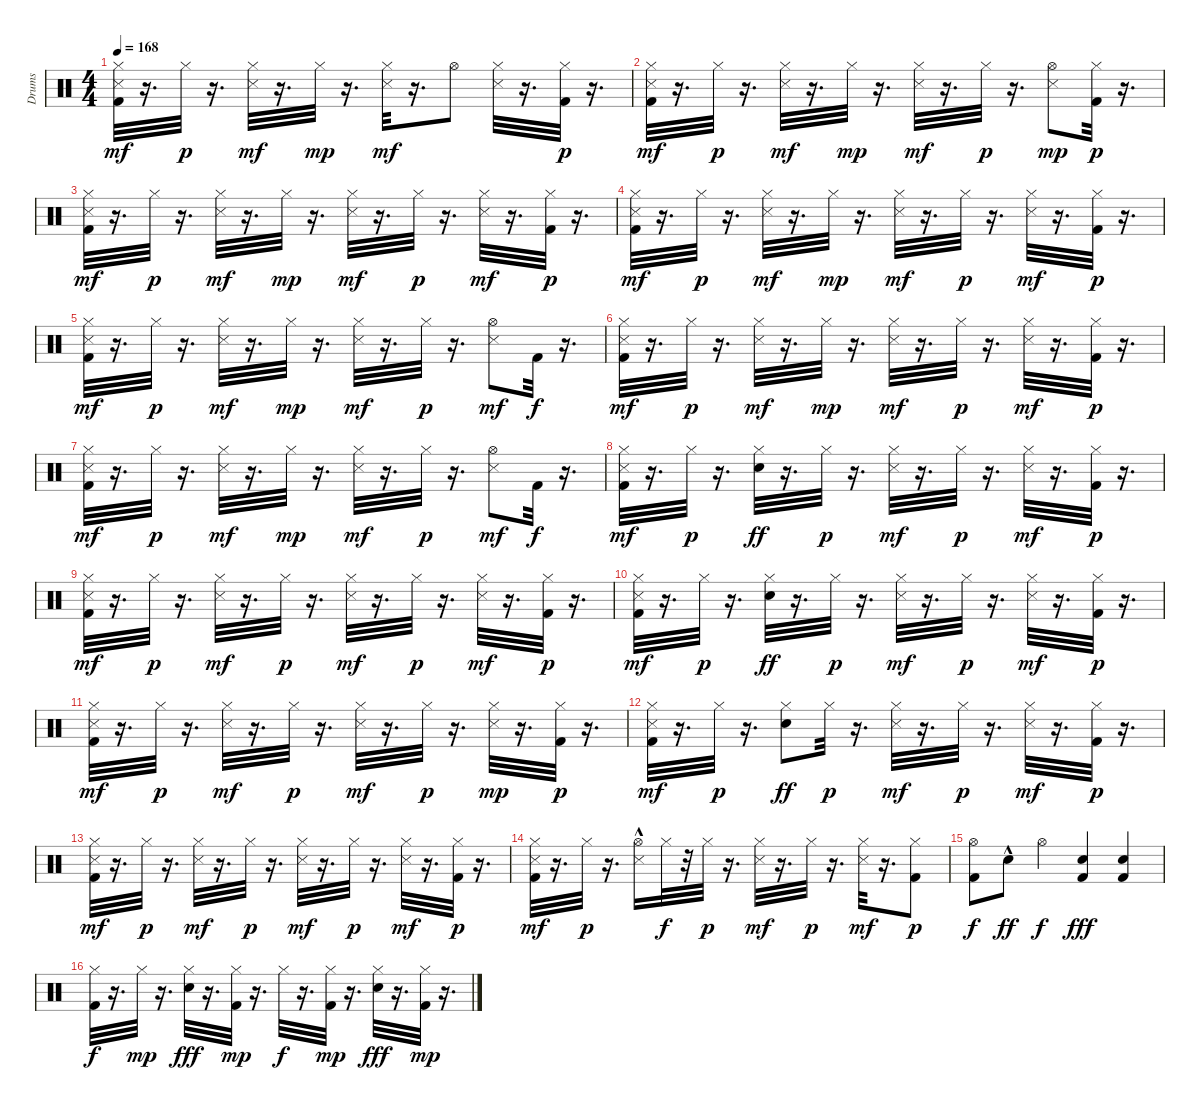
\track ("Drums" "Drums") {instrument percussion}
\staff {score}
\articulation defaults
\ts (4 4)
\tempo 168
\clef neutral
\ks c
("Hi-Hat (closed)" "Kick (hit) 2" "Snare (side stick) 3").32{dy mf} r.16{d} "Hi-Hat (closed)".32{dy p} r.16{d} ("Hi-Hat (closed)" "Snare (side stick) 3").32{dy mf} r.16{d} "Hi-Hat (closed)".32{dy mp} r.16{d} ("Snare (side stick) 3" "Hi-Hat (closed)").32{dy mf} r.16{d} "Hi-Hat (open)".8 ("Hi-Hat (closed)" "Snare (side stick) 3").32 r.16{d} ("Hi-Hat (closed)" "Kick (hit) 2").32{dy p} r.16{d} |
("Hi-Hat (closed)" "Kick (hit) 2" "Snare (side stick) 3").32{dy mf} r.16{d} "Hi-Hat (closed)".32{dy p} r.16{d} ("Hi-Hat (closed)" "Snare (side stick) 3").32{dy mf} r.16{d} "Hi-Hat (closed)".32{dy mp} r.16{d} ("Hi-Hat (closed)" "Snare (side stick) 3").32{dy mf} r.16{d} "Hi-Hat (closed)".32{dy p} r.16{d} ("Snare (side stick) 3" "Hi-Hat (open)").8{dy mp} ("Hi-Hat (closed)" "Kick (hit) 2").32{dy p} r.16{d} |
("Hi-Hat (closed)" "Kick (hit) 2" "Snare (side stick) 3").32{dy mf} r.16{d} "Hi-Hat (closed)".32{dy p} r.16{d} ("Hi-Hat (closed)" "Snare (side stick) 3").32{dy mf} r.16{d} "Hi-Hat (closed)".32{dy mp} r.16{d} ("Hi-Hat (closed)" "Snare (side stick) 3").32{dy mf} r.16{d} "Hi-Hat (closed)".32{dy p} r.16{d} ("Hi-Hat (closed)" "Snare (side stick) 3").32{dy mf} r.16{d} ("Hi-Hat (closed)" "Kick (hit) 2").32{dy p} r.16{d} |
("Hi-Hat (closed)" "Kick (hit) 2" "Snare (side stick) 3").32{dy mf} r.16{d} "Hi-Hat (closed)".32{dy p} r.16{d} ("Hi-Hat (closed)" "Snare (side stick) 3").32{dy mf} r.16{d} "Hi-Hat (closed)".32{dy mp} r.16{d} ("Hi-Hat (closed)" "Snare (side stick) 3").32{dy mf} r.16{d} "Hi-Hat (closed)".32{dy p} r.16{d} ("Hi-Hat (closed)" "Snare (side stick) 3").32{dy mf} r.16{d} ("Hi-Hat (closed)" "Kick (hit) 2").32{dy p} r.16{d} |
("Hi-Hat (closed)" "Kick (hit) 2" "Snare (side stick) 3").32{dy mf} r.16{d} "Hi-Hat (closed)".32{dy p} r.16{d} ("Hi-Hat (closed)" "Snare (side stick) 3").32{dy mf} r.16{d} "Hi-Hat (closed)".32{dy mp} r.16{d} ("Hi-Hat (closed)" "Snare (side stick) 3").32{dy mf} r.16{d} "Hi-Hat (closed)".32{dy p} r.16{d} ("Snare (side stick) 3" "Hi-Hat (open)").8{dy mf} "Kick (hit) 2".32{dy f} r.16{d} |
("Hi-Hat (closed)" "Kick (hit) 2" "Snare (side stick) 3").32{dy mf} r.16{d} "Hi-Hat (closed)".32{dy p} r.16{d} ("Hi-Hat (closed)" "Snare (side stick) 3").32{dy mf} r.16{d} "Hi-Hat (closed)".32{dy mp} r.16{d} ("Hi-Hat (closed)" "Snare (side stick) 3").32{dy mf} r.16{d} "Hi-Hat (closed)".32{dy p} r.16{d} ("Hi-Hat (closed)" "Snare (side stick) 3").32{dy mf} r.16{d} ("Hi-Hat (closed)" "Kick (hit) 2").32{dy p} r.16{d} |
("Hi-Hat (closed)" "Kick (hit) 2" "Snare (side stick) 3").32{dy mf} r.16{d} "Hi-Hat (closed)".32{dy p} r.16{d} ("Hi-Hat (closed)" "Snare (side stick) 3").32{dy mf} r.16{d} "Hi-Hat (closed)".32{dy mp} r.16{d} ("Hi-Hat (closed)" "Snare (side stick) 3").32{dy mf} r.16{d} "Hi-Hat (closed)".32{dy p} r.16{d} ("Snare (side stick) 3" "Hi-Hat (open)").8{dy mf} "Kick (hit) 2".32{dy f} r.16{d} |
("Hi-Hat (closed)" "Kick (hit) 2" "Snare (side stick) 3").32{dy mf} r.16{d} "Hi-Hat (closed)".32{dy p} r.16{d} ("Hi-Hat (closed)" "Electric Snare (hit)").32{dy ff} r.16{d} "Hi-Hat (closed)".32{dy p} r.16{d} ("Hi-Hat (closed)" "Snare (side stick) 3").32{dy mf} r.16{d} "Hi-Hat (closed)".32{dy p} r.16{d} ("Hi-Hat (closed)" "Snare (side stick) 3").32{dy mf} r.16{d} ("Hi-Hat (closed)" "Kick (hit) 2").32{dy p} r.16{d} |
("Hi-Hat (closed)" "Kick (hit) 2" "Snare (side stick) 3").32{dy mf} r.16{d} "Hi-Hat (closed)".32{dy p} r.16{d} ("Hi-Hat (closed)" "Snare (side stick) 3").32{dy mf} r.16{d} "Hi-Hat (closed)".32{dy p} r.16{d} ("Hi-Hat (closed)" "Snare (side stick) 3").32{dy mf} r.16{d} "Hi-Hat (closed)".32{dy p} r.16{d} ("Hi-Hat (closed)" "Snare (side stick) 3").32{dy mf} r.16{d} ("Hi-Hat (closed)" "Kick (hit) 2").32{dy p} r.16{d} |
("Hi-Hat (closed)" "Kick (hit) 2" "Snare (side stick) 3").32{dy mf} r.16{d} "Hi-Hat (closed)".32{dy p} r.16{d} ("Hi-Hat (closed)" "Electric Snare (hit)").32{dy ff} r.16{d} "Hi-Hat (closed)".32{dy p} r.16{d} ("Hi-Hat (closed)" "Snare (side stick) 3").32{dy mf} r.16{d} "Hi-Hat (closed)".32{dy p} r.16{d} ("Hi-Hat (closed)" "Snare (side stick) 3").32{dy mf} r.16{d} ("Hi-Hat (closed)" "Kick (hit) 2").32{dy p} r.16{d} |
("Hi-Hat (closed)" "Kick (hit) 2" "Snare (side stick) 3").32{dy mf} r.16{d} "Hi-Hat (closed)".32{dy p} r.16{d} ("Hi-Hat (closed)" "Snare (side stick) 3").32{dy mf} r.16{d} "Hi-Hat (closed)".32{dy p} r.16{d} ("Hi-Hat (closed)" "Snare (side stick) 3").32{dy mf} r.16{d} "Hi-Hat (closed)".32{dy p} r.16{d} ("Hi-Hat (closed)" "Snare (side stick) 3").32{dy mp} r.16{d} ("Hi-Hat (closed)" "Kick (hit) 2").32{dy p} r.16{d} |
("Hi-Hat (closed)" "Kick (hit) 2" "Snare (side stick) 3").32{dy mf} r.16{d} "Hi-Hat (closed)".32{dy p} r.16{d} ("Hi-Hat (closed)" "Electric Snare (hit)").8{dy ff} "Hi-Hat (closed)".32{dy p} r.16{d} ("Hi-Hat (closed)" "Snare (side stick) 3").32{dy mf} r.16{d} "Hi-Hat (closed)".32{dy p} r.16{d} ("Hi-Hat (closed)" "Snare (side stick) 3").32{dy mf} r.16{d} ("Hi-Hat (closed)" "Kick (hit) 2").32{dy p} r.16{d} |
("Hi-Hat (closed)" "Kick (hit) 2" "Snare (side stick) 3").32{dy mf} r.16{d} "Hi-Hat (closed)".32{dy p} r.16{d} ("Hi-Hat (closed)" "Snare (side stick) 3").32{dy mf} r.16{d} "Hi-Hat (closed)".32{dy p} r.16{d} ("Hi-Hat (closed)" "Snare (side stick) 3").32{dy mf} r.16{d} "Hi-Hat (closed)".32{dy p} r.16{d} ("Hi-Hat (closed)" "Snare (side stick) 3").32{dy mf} r.16{d} ("Hi-Hat (closed)" "Kick (hit) 2").32{dy p} r.16{d} |
("Hi-Hat (closed)" "Kick (hit) 2" "Snare (side stick) 3").32{dy mf} r.16{d} "Hi-Hat (closed)".32{dy p} r.16{d} ("Snare (side stick) 3" "Hi-Hat (open)"{hac}).16 "Hi-Hat (closed)".32{dy f} r.32 "Hi-Hat (closed)".32{dy p} r.16{d} ("Hi-Hat (closed)" "Snare (side stick) 3").32{dy mf} r.16{d} "Hi-Hat (closed)".32{dy p} r.16{d} ("Hi-Hat (closed)" "Snare (side stick) 3").32{dy mf} r.16{d} ("Hi-Hat (closed)" "Kick (hit) 2").8{dy p} |
("Kick (hit) 2" "Hi-Hat (open)").8{dy f} "Electric Snare (hit)"{hac}.8{dy ff} "Hi-Hat (open)".4{dy f} ("Electric Snare (hit)" "Kick (hit) 2").4{dy fff} ("Electric Snare (hit)" "Kick (hit) 2").4 |
("Kick (hit) 2" "Hi-Hat (closed)").32{dy f} r.16{d} "Hi-Hat (closed)".32{dy mp} r.16{d} ("Electric Snare (hit)" "Hi-Hat (closed)").32{dy fff} r.16{d} ("Kick (hit) 2" "Hi-Hat (closed)").32{dy mp} r.16{d} "Hi-Hat (closed)".32{dy f} r.16{d} ("Kick (hit) 2" "Hi-Hat (closed)").32{dy mp} r.16{d} ("Electric Snare (hit)" "Hi-Hat (closed)").32{dy fff} r.16{d} ("Kick (hit) 2" "Hi-Hat (closed)").32{dy mp} r.16{d}
